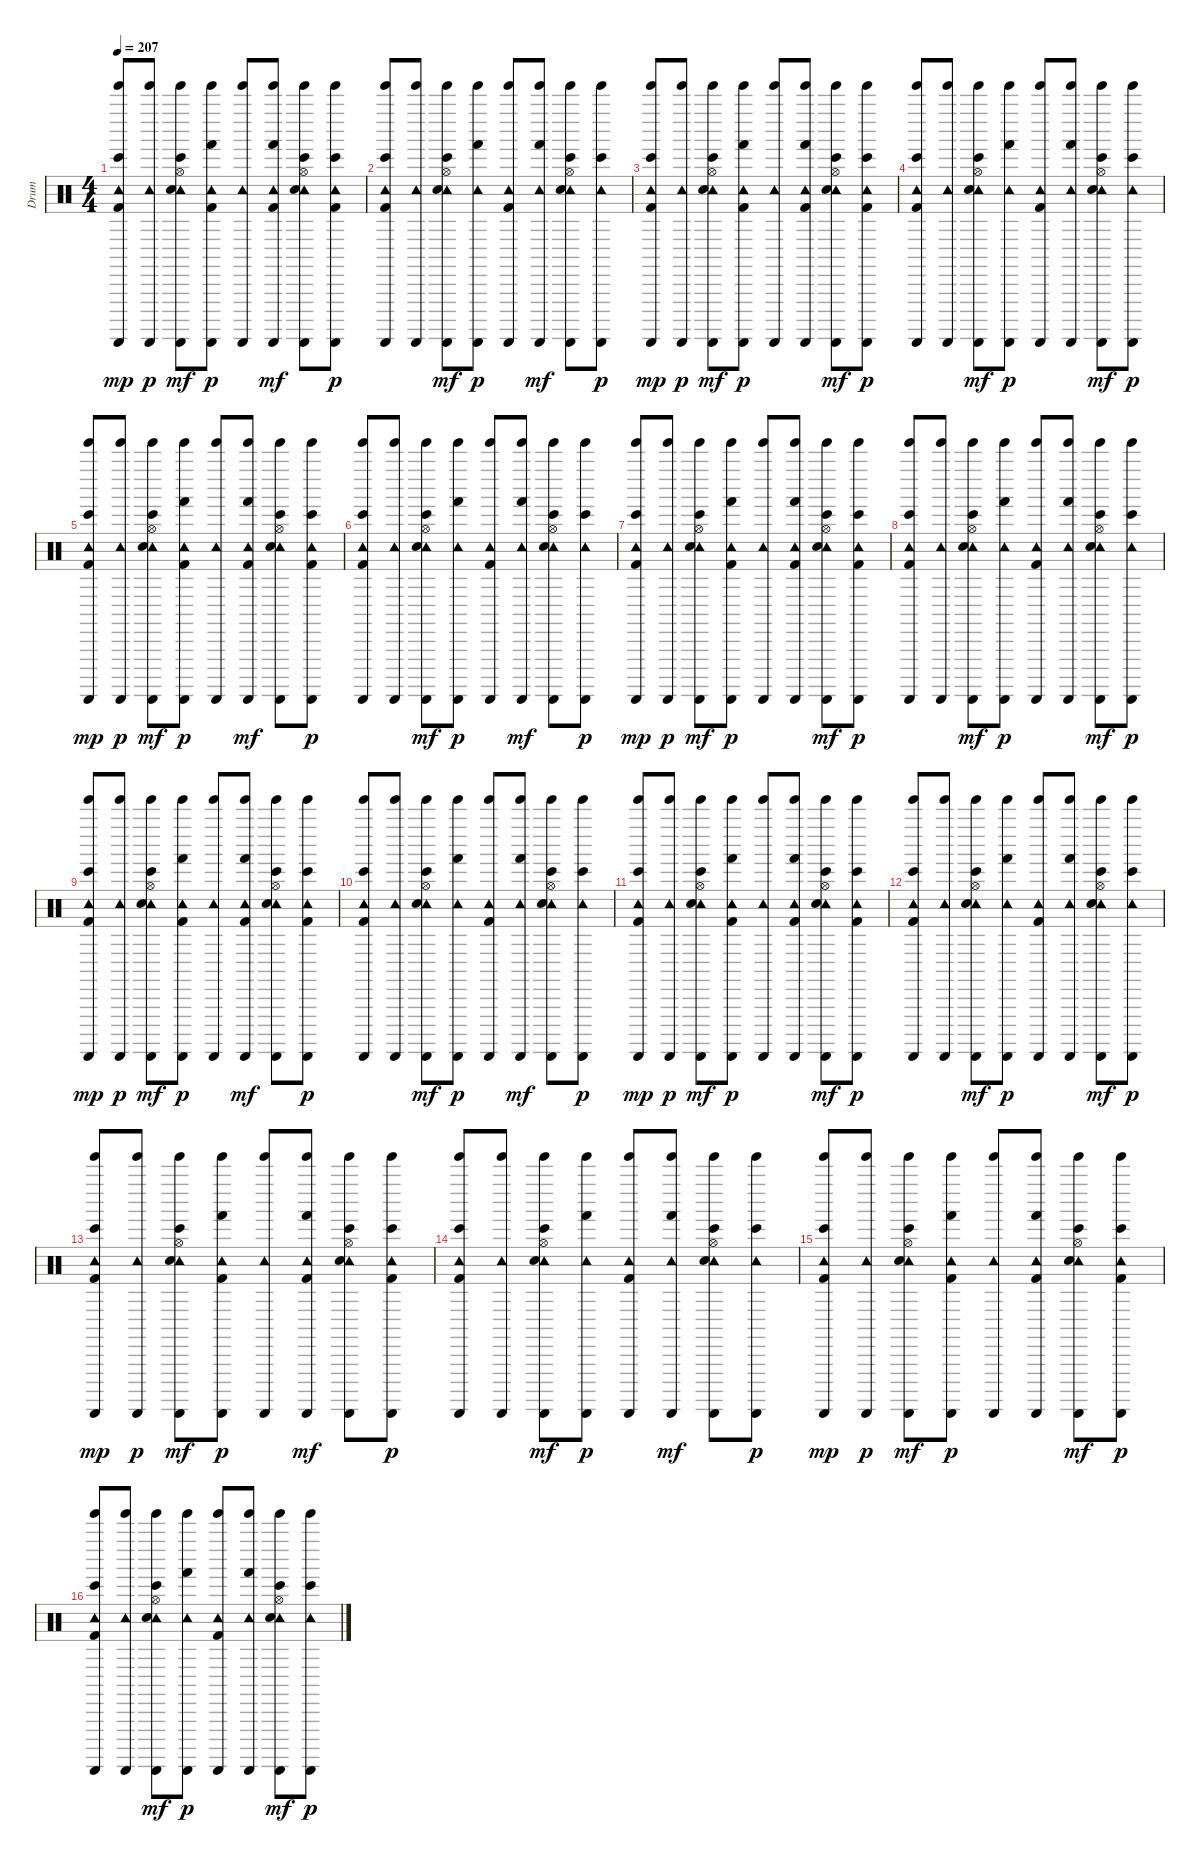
\track ("Drum" "Drum") {instrument percussion}
\staff {score}
\articulation defaults
\ts (4 4)
\tempo 207
\clef neutral
\ks c
("Tambourine (hit)" "Kick (hit) 2" "Tinkle Bell (hit)" "Guiro (scrap-return)" "Bongo High (hit)").8{dy mp} ("Tambourine (hit)" "Tinkle Bell (hit)" "Guiro (scrap-return)").8{dy p} ("Tambourine (hit)" "Hi-Hat (open)" "Snare (hit) 2" "Tinkle Bell (hit)" "Guiro (scrap-return)" "Bongo High (hit)").8{dy mf} ("Tambourine (hit)" "Kick (hit) 2" "Tinkle Bell (hit)" "Guiro (scrap-return)" "Hand (hit)").8{dy p} ("Tambourine (hit)" "Tinkle Bell (hit)" "Guiro (scrap-return)").8 ("Tambourine (hit)" "Kick (hit) 2" "Tinkle Bell (hit)" "Guiro (scrap-return)" "Hand (hit)").8{dy mf} ("Tambourine (hit)" "Hi-Hat (open)" "Snare (hit) 2" "Tinkle Bell (hit)" "Guiro (scrap-return)" "Bongo High (hit)").8 ("Tambourine (hit)" "Kick (hit) 2" "Tinkle Bell (hit)" "Guiro (scrap-return)" "Bongo High (hit)").8{dy p} |
("Tambourine (hit)" "Kick (hit) 2" "Tinkle Bell (hit)" "Guiro (scrap-return)" "Bongo High (hit)").8 ("Tambourine (hit)" "Tinkle Bell (hit)" "Guiro (scrap-return)").8 ("Tambourine (hit)" "Hi-Hat (open)" "Snare (hit) 2" "Tinkle Bell (hit)" "Guiro (scrap-return)" "Bongo High (hit)").8{dy mf} ("Tambourine (hit)" "Tinkle Bell (hit)" "Guiro (scrap-return)" "Hand (hit)").8{dy p} ("Tambourine (hit)" "Kick (hit) 2" "Tinkle Bell (hit)" "Guiro (scrap-return)").8 ("Tambourine (hit)" "Tinkle Bell (hit)" "Guiro (scrap-return)" "Hand (hit)").8{dy mf} ("Tambourine (hit)" "Hi-Hat (open)" "Snare (hit) 2" "Tinkle Bell (hit)" "Guiro (scrap-return)" "Bongo High (hit)").8 ("Tambourine (hit)" "Tinkle Bell (hit)" "Guiro (scrap-return)" "Bongo High (hit)").8{dy p} |
("Tambourine (hit)" "Kick (hit) 2" "Bongo High (hit)" "Tinkle Bell (hit)" "Guiro (scrap-return)").8{dy mp} ("Tambourine (hit)" "Tinkle Bell (hit)" "Guiro (scrap-return)").8{dy p} ("Tambourine (hit)" "Hi-Hat (open)" "Snare (hit) 2" "Bongo High (hit)" "Tinkle Bell (hit)" "Guiro (scrap-return)").8{dy mf} ("Tambourine (hit)" "Kick (hit) 2" "Hand (hit)" "Tinkle Bell (hit)" "Guiro (scrap-return)").8{dy p} ("Tambourine (hit)" "Tinkle Bell (hit)" "Guiro (scrap-return)").8 ("Tambourine (hit)" "Kick (hit) 2" "Hand (hit)" "Tinkle Bell (hit)" "Guiro (scrap-return)").8 ("Tambourine (hit)" "Hi-Hat (open)" "Snare (hit) 2" "Bongo High (hit)" "Tinkle Bell (hit)" "Guiro (scrap-return)").8{dy mf} ("Tambourine (hit)" "Kick (hit) 2" "Bongo High (hit)" "Tinkle Bell (hit)" "Guiro (scrap-return)").8{dy p} |
("Tambourine (hit)" "Kick (hit) 2" "Bongo High (hit)" "Tinkle Bell (hit)" "Guiro (scrap-return)").8 ("Tambourine (hit)" "Tinkle Bell (hit)" "Guiro (scrap-return)").8 ("Tambourine (hit)" "Hi-Hat (open)" "Snare (hit) 2" "Bongo High (hit)" "Tinkle Bell (hit)" "Guiro (scrap-return)").8{dy mf} ("Tambourine (hit)" "Hand (hit)" "Tinkle Bell (hit)" "Guiro (scrap-return)").8{dy p} ("Tambourine (hit)" "Kick (hit) 2" "Tinkle Bell (hit)" "Guiro (scrap-return)").8 ("Tambourine (hit)" "Hand (hit)" "Tinkle Bell (hit)" "Guiro (scrap-return)").8 ("Tambourine (hit)" "Hi-Hat (open)" "Snare (hit) 2" "Bongo High (hit)" "Tinkle Bell (hit)" "Guiro (scrap-return)").8{dy mf} ("Tambourine (hit)" "Bongo High (hit)" "Tinkle Bell (hit)" "Guiro (scrap-return)").8{dy p} |
("Tambourine (hit)" "Kick (hit) 2" "Tinkle Bell (hit)" "Guiro (scrap-return)" "Bongo High (hit)").8{dy mp} ("Tambourine (hit)" "Tinkle Bell (hit)" "Guiro (scrap-return)").8{dy p} ("Tambourine (hit)" "Hi-Hat (open)" "Snare (hit) 2" "Tinkle Bell (hit)" "Guiro (scrap-return)" "Bongo High (hit)").8{dy mf} ("Tambourine (hit)" "Kick (hit) 2" "Tinkle Bell (hit)" "Guiro (scrap-return)" "Hand (hit)").8{dy p} ("Tambourine (hit)" "Tinkle Bell (hit)" "Guiro (scrap-return)").8 ("Tambourine (hit)" "Kick (hit) 2" "Tinkle Bell (hit)" "Guiro (scrap-return)" "Hand (hit)").8{dy mf} ("Tambourine (hit)" "Hi-Hat (open)" "Snare (hit) 2" "Tinkle Bell (hit)" "Guiro (scrap-return)" "Bongo High (hit)").8 ("Tambourine (hit)" "Kick (hit) 2" "Tinkle Bell (hit)" "Guiro (scrap-return)" "Bongo High (hit)").8{dy p} |
("Tambourine (hit)" "Kick (hit) 2" "Tinkle Bell (hit)" "Guiro (scrap-return)" "Bongo High (hit)").8 ("Tambourine (hit)" "Tinkle Bell (hit)" "Guiro (scrap-return)").8 ("Tambourine (hit)" "Hi-Hat (open)" "Snare (hit) 2" "Tinkle Bell (hit)" "Guiro (scrap-return)" "Bongo High (hit)").8{dy mf} ("Tambourine (hit)" "Tinkle Bell (hit)" "Guiro (scrap-return)" "Hand (hit)").8{dy p} ("Tambourine (hit)" "Kick (hit) 2" "Tinkle Bell (hit)" "Guiro (scrap-return)").8 ("Tambourine (hit)" "Tinkle Bell (hit)" "Guiro (scrap-return)" "Hand (hit)").8{dy mf} ("Tambourine (hit)" "Hi-Hat (open)" "Snare (hit) 2" "Tinkle Bell (hit)" "Guiro (scrap-return)" "Bongo High (hit)").8 ("Tambourine (hit)" "Tinkle Bell (hit)" "Guiro (scrap-return)" "Bongo High (hit)").8{dy p} |
("Tambourine (hit)" "Kick (hit) 2" "Bongo High (hit)" "Tinkle Bell (hit)" "Guiro (scrap-return)").8{dy mp} ("Tambourine (hit)" "Tinkle Bell (hit)" "Guiro (scrap-return)").8{dy p} ("Tambourine (hit)" "Hi-Hat (open)" "Snare (hit) 2" "Bongo High (hit)" "Tinkle Bell (hit)" "Guiro (scrap-return)").8{dy mf} ("Tambourine (hit)" "Kick (hit) 2" "Hand (hit)" "Tinkle Bell (hit)" "Guiro (scrap-return)").8{dy p} ("Tambourine (hit)" "Tinkle Bell (hit)" "Guiro (scrap-return)").8 ("Tambourine (hit)" "Kick (hit) 2" "Hand (hit)" "Tinkle Bell (hit)" "Guiro (scrap-return)").8 ("Tambourine (hit)" "Hi-Hat (open)" "Snare (hit) 2" "Bongo High (hit)" "Tinkle Bell (hit)" "Guiro (scrap-return)").8{dy mf} ("Tambourine (hit)" "Kick (hit) 2" "Bongo High (hit)" "Tinkle Bell (hit)" "Guiro (scrap-return)").8{dy p} |
("Tambourine (hit)" "Kick (hit) 2" "Bongo High (hit)" "Tinkle Bell (hit)" "Guiro (scrap-return)").8 ("Tambourine (hit)" "Tinkle Bell (hit)" "Guiro (scrap-return)").8 ("Tambourine (hit)" "Hi-Hat (open)" "Snare (hit) 2" "Bongo High (hit)" "Tinkle Bell (hit)" "Guiro (scrap-return)").8{dy mf} ("Tambourine (hit)" "Hand (hit)" "Tinkle Bell (hit)" "Guiro (scrap-return)").8{dy p} ("Tambourine (hit)" "Kick (hit) 2" "Tinkle Bell (hit)" "Guiro (scrap-return)").8 ("Tambourine (hit)" "Hand (hit)" "Tinkle Bell (hit)" "Guiro (scrap-return)").8 ("Tambourine (hit)" "Hi-Hat (open)" "Snare (hit) 2" "Bongo High (hit)" "Tinkle Bell (hit)" "Guiro (scrap-return)").8{dy mf} ("Tambourine (hit)" "Bongo High (hit)" "Tinkle Bell (hit)" "Guiro (scrap-return)").8{dy p} |
("Tambourine (hit)" "Kick (hit) 2" "Tinkle Bell (hit)" "Guiro (scrap-return)" "Bongo High (hit)").8{dy mp} ("Tambourine (hit)" "Tinkle Bell (hit)" "Guiro (scrap-return)").8{dy p} ("Tambourine (hit)" "Hi-Hat (open)" "Snare (hit) 2" "Tinkle Bell (hit)" "Guiro (scrap-return)" "Bongo High (hit)").8{dy mf} ("Tambourine (hit)" "Kick (hit) 2" "Tinkle Bell (hit)" "Guiro (scrap-return)" "Hand (hit)").8{dy p} ("Tambourine (hit)" "Tinkle Bell (hit)" "Guiro (scrap-return)").8 ("Tambourine (hit)" "Kick (hit) 2" "Tinkle Bell (hit)" "Guiro (scrap-return)" "Hand (hit)").8{dy mf} ("Tambourine (hit)" "Hi-Hat (open)" "Snare (hit) 2" "Tinkle Bell (hit)" "Guiro (scrap-return)" "Bongo High (hit)").8 ("Tambourine (hit)" "Kick (hit) 2" "Tinkle Bell (hit)" "Guiro (scrap-return)" "Bongo High (hit)").8{dy p} |
("Tambourine (hit)" "Kick (hit) 2" "Tinkle Bell (hit)" "Guiro (scrap-return)" "Bongo High (hit)").8 ("Tambourine (hit)" "Tinkle Bell (hit)" "Guiro (scrap-return)").8 ("Tambourine (hit)" "Hi-Hat (open)" "Snare (hit) 2" "Tinkle Bell (hit)" "Guiro (scrap-return)" "Bongo High (hit)").8{dy mf} ("Tambourine (hit)" "Tinkle Bell (hit)" "Guiro (scrap-return)" "Hand (hit)").8{dy p} ("Tambourine (hit)" "Kick (hit) 2" "Tinkle Bell (hit)" "Guiro (scrap-return)").8 ("Tambourine (hit)" "Tinkle Bell (hit)" "Guiro (scrap-return)" "Hand (hit)").8{dy mf} ("Tambourine (hit)" "Hi-Hat (open)" "Snare (hit) 2" "Tinkle Bell (hit)" "Guiro (scrap-return)" "Bongo High (hit)").8 ("Tambourine (hit)" "Tinkle Bell (hit)" "Guiro (scrap-return)" "Bongo High (hit)").8{dy p} |
("Tambourine (hit)" "Kick (hit) 2" "Bongo High (hit)" "Tinkle Bell (hit)" "Guiro (scrap-return)").8{dy mp} ("Tambourine (hit)" "Tinkle Bell (hit)" "Guiro (scrap-return)").8{dy p} ("Tambourine (hit)" "Hi-Hat (open)" "Snare (hit) 2" "Bongo High (hit)" "Tinkle Bell (hit)" "Guiro (scrap-return)").8{dy mf} ("Tambourine (hit)" "Kick (hit) 2" "Hand (hit)" "Tinkle Bell (hit)" "Guiro (scrap-return)").8{dy p} ("Tambourine (hit)" "Tinkle Bell (hit)" "Guiro (scrap-return)").8 ("Tambourine (hit)" "Kick (hit) 2" "Hand (hit)" "Tinkle Bell (hit)" "Guiro (scrap-return)").8 ("Tambourine (hit)" "Hi-Hat (open)" "Snare (hit) 2" "Bongo High (hit)" "Tinkle Bell (hit)" "Guiro (scrap-return)").8{dy mf} ("Tambourine (hit)" "Kick (hit) 2" "Bongo High (hit)" "Tinkle Bell (hit)" "Guiro (scrap-return)").8{dy p} |
("Tambourine (hit)" "Kick (hit) 2" "Bongo High (hit)" "Tinkle Bell (hit)" "Guiro (scrap-return)").8 ("Tambourine (hit)" "Tinkle Bell (hit)" "Guiro (scrap-return)").8 ("Tambourine (hit)" "Hi-Hat (open)" "Snare (hit) 2" "Bongo High (hit)" "Tinkle Bell (hit)" "Guiro (scrap-return)").8{dy mf} ("Tambourine (hit)" "Hand (hit)" "Tinkle Bell (hit)" "Guiro (scrap-return)").8{dy p} ("Tambourine (hit)" "Kick (hit) 2" "Tinkle Bell (hit)" "Guiro (scrap-return)").8 ("Tambourine (hit)" "Hand (hit)" "Tinkle Bell (hit)" "Guiro (scrap-return)").8 ("Tambourine (hit)" "Hi-Hat (open)" "Snare (hit) 2" "Bongo High (hit)" "Tinkle Bell (hit)" "Guiro (scrap-return)").8{dy mf} ("Tambourine (hit)" "Bongo High (hit)" "Tinkle Bell (hit)" "Guiro (scrap-return)").8{dy p} |
("Tambourine (hit)" "Kick (hit) 2" "Tinkle Bell (hit)" "Guiro (scrap-return)" "Bongo High (hit)").8{dy mp} ("Tambourine (hit)" "Tinkle Bell (hit)" "Guiro (scrap-return)").8{dy p} ("Tambourine (hit)" "Hi-Hat (open)" "Snare (hit) 2" "Tinkle Bell (hit)" "Guiro (scrap-return)" "Bongo High (hit)").8{dy mf} ("Tambourine (hit)" "Kick (hit) 2" "Tinkle Bell (hit)" "Guiro (scrap-return)" "Hand (hit)").8{dy p} ("Tambourine (hit)" "Tinkle Bell (hit)" "Guiro (scrap-return)").8 ("Tambourine (hit)" "Kick (hit) 2" "Tinkle Bell (hit)" "Guiro (scrap-return)" "Hand (hit)").8{dy mf} ("Tambourine (hit)" "Hi-Hat (open)" "Snare (hit) 2" "Tinkle Bell (hit)" "Guiro (scrap-return)" "Bongo High (hit)").8 ("Tambourine (hit)" "Kick (hit) 2" "Tinkle Bell (hit)" "Guiro (scrap-return)" "Bongo High (hit)").8{dy p} |
("Tambourine (hit)" "Kick (hit) 2" "Tinkle Bell (hit)" "Guiro (scrap-return)" "Bongo High (hit)").8 ("Tambourine (hit)" "Tinkle Bell (hit)" "Guiro (scrap-return)").8 ("Tambourine (hit)" "Hi-Hat (open)" "Snare (hit) 2" "Tinkle Bell (hit)" "Guiro (scrap-return)" "Bongo High (hit)").8{dy mf} ("Tambourine (hit)" "Tinkle Bell (hit)" "Guiro (scrap-return)" "Hand (hit)").8{dy p} ("Tambourine (hit)" "Kick (hit) 2" "Tinkle Bell (hit)" "Guiro (scrap-return)").8 ("Tambourine (hit)" "Tinkle Bell (hit)" "Guiro (scrap-return)" "Hand (hit)").8{dy mf} ("Tambourine (hit)" "Hi-Hat (open)" "Snare (hit) 2" "Tinkle Bell (hit)" "Guiro (scrap-return)" "Bongo High (hit)").8 ("Tambourine (hit)" "Tinkle Bell (hit)" "Guiro (scrap-return)" "Bongo High (hit)").8{dy p} |
("Tambourine (hit)" "Kick (hit) 2" "Bongo High (hit)" "Tinkle Bell (hit)" "Guiro (scrap-return)").8{dy mp} ("Tambourine (hit)" "Tinkle Bell (hit)" "Guiro (scrap-return)").8{dy p} ("Tambourine (hit)" "Hi-Hat (open)" "Snare (hit) 2" "Bongo High (hit)" "Tinkle Bell (hit)" "Guiro (scrap-return)").8{dy mf} ("Tambourine (hit)" "Kick (hit) 2" "Hand (hit)" "Tinkle Bell (hit)" "Guiro (scrap-return)").8{dy p} ("Tambourine (hit)" "Tinkle Bell (hit)" "Guiro (scrap-return)").8 ("Tambourine (hit)" "Kick (hit) 2" "Hand (hit)" "Tinkle Bell (hit)" "Guiro (scrap-return)").8 ("Tambourine (hit)" "Hi-Hat (open)" "Snare (hit) 2" "Bongo High (hit)" "Tinkle Bell (hit)" "Guiro (scrap-return)").8{dy mf} ("Tambourine (hit)" "Kick (hit) 2" "Bongo High (hit)" "Tinkle Bell (hit)" "Guiro (scrap-return)").8{dy p} |
("Tambourine (hit)" "Kick (hit) 2" "Bongo High (hit)" "Tinkle Bell (hit)" "Guiro (scrap-return)").8 ("Tambourine (hit)" "Tinkle Bell (hit)" "Guiro (scrap-return)").8 ("Tambourine (hit)" "Hi-Hat (open)" "Snare (hit) 2" "Bongo High (hit)" "Tinkle Bell (hit)" "Guiro (scrap-return)").8{dy mf} ("Tambourine (hit)" "Hand (hit)" "Tinkle Bell (hit)" "Guiro (scrap-return)").8{dy p} ("Tambourine (hit)" "Kick (hit) 2" "Tinkle Bell (hit)" "Guiro (scrap-return)").8 ("Tambourine (hit)" "Hand (hit)" "Tinkle Bell (hit)" "Guiro (scrap-return)").8 ("Tambourine (hit)" "Hi-Hat (open)" "Snare (hit) 2" "Bongo High (hit)" "Tinkle Bell (hit)" "Guiro (scrap-return)").8{dy mf} ("Tambourine (hit)" "Bongo High (hit)" "Tinkle Bell (hit)" "Guiro (scrap-return)").8{dy p}
